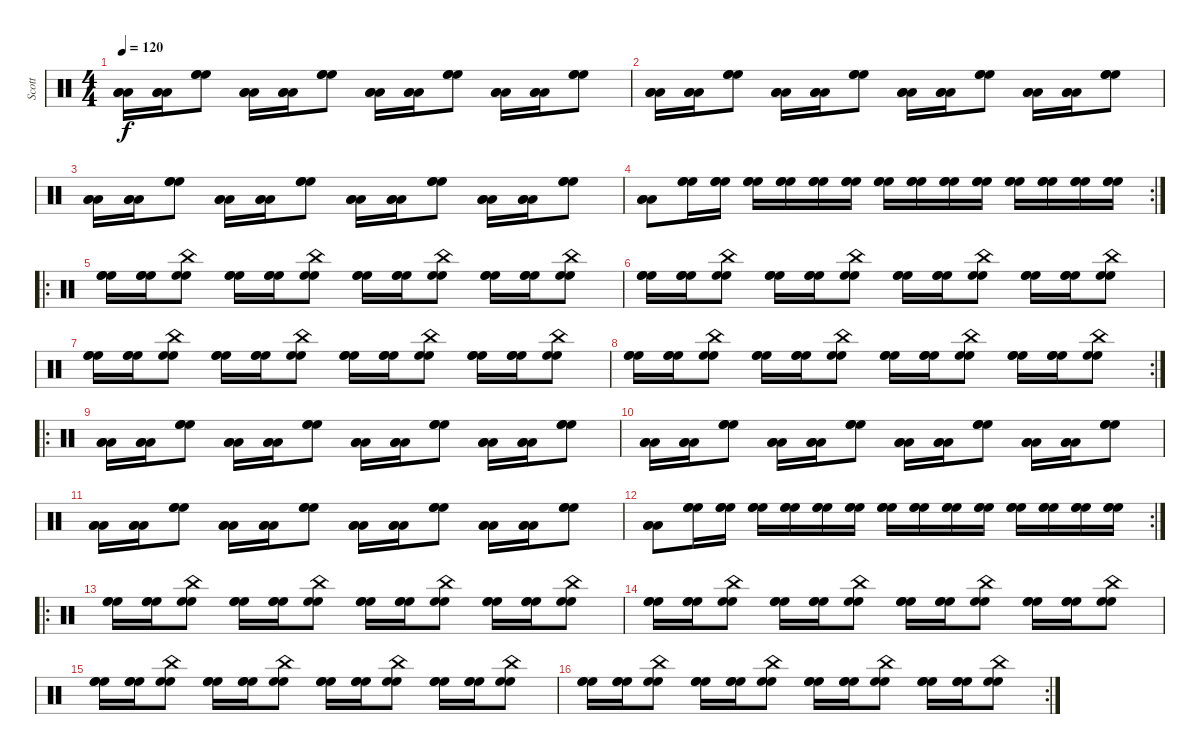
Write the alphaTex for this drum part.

\track ("Scott" "Scott") {instrument percussion}
\staff {score}
\articulation defaults
\ts (4 4)
\tempo 120
\clef neutral
\ks c
("Low Tom (hit)" "Low Tom (hit)" "Low Tom (hit)").16{dy f} ("Low Tom (hit)" "Low Tom (hit)" "Low Tom (hit)").16 ("High Floor Tom (hit)" "High Floor Tom (hit)" "High Floor Tom (hit)").8 ("Low Tom (hit)" "Low Tom (hit)" "Low Tom (hit)").16 ("Low Tom (hit)" "Low Tom (hit)" "Low Tom (hit)").16 ("High Floor Tom (hit)" "High Floor Tom (hit)" "High Floor Tom (hit)").8 ("Low Tom (hit)" "Low Tom (hit)" "Low Tom (hit)").16 ("Low Tom (hit)" "Low Tom (hit)" "Low Tom (hit)").16 ("High Floor Tom (hit)" "High Floor Tom (hit)" "High Floor Tom (hit)").8 ("Low Tom (hit)" "Low Tom (hit)" "Low Tom (hit)").16 ("Low Tom (hit)" "Low Tom (hit)" "Low Tom (hit)").16 ("High Floor Tom (hit)" "High Floor Tom (hit)" "High Floor Tom (hit)").8 |
("Low Tom (hit)" "Low Tom (hit)" "Low Tom (hit)").16 ("Low Tom (hit)" "Low Tom (hit)" "Low Tom (hit)").16 ("High Floor Tom (hit)" "High Floor Tom (hit)" "High Floor Tom (hit)").8 ("Low Tom (hit)" "Low Tom (hit)" "Low Tom (hit)").16 ("Low Tom (hit)" "Low Tom (hit)" "Low Tom (hit)").16 ("High Floor Tom (hit)" "High Floor Tom (hit)" "High Floor Tom (hit)").8 ("Low Tom (hit)" "Low Tom (hit)" "Low Tom (hit)").16 ("Low Tom (hit)" "Low Tom (hit)" "Low Tom (hit)").16 ("High Floor Tom (hit)" "High Floor Tom (hit)" "High Floor Tom (hit)").8 ("Low Tom (hit)" "Low Tom (hit)" "Low Tom (hit)").16 ("Low Tom (hit)" "Low Tom (hit)" "Low Tom (hit)").16 ("High Floor Tom (hit)" "High Floor Tom (hit)" "High Floor Tom (hit)").8 |
("Low Tom (hit)" "Low Tom (hit)" "Low Tom (hit)").16 ("Low Tom (hit)" "Low Tom (hit)" "Low Tom (hit)").16 ("High Floor Tom (hit)" "High Floor Tom (hit)" "High Floor Tom (hit)").8 ("Low Tom (hit)" "Low Tom (hit)" "Low Tom (hit)").16 ("Low Tom (hit)" "Low Tom (hit)" "Low Tom (hit)").16 ("High Floor Tom (hit)" "High Floor Tom (hit)" "High Floor Tom (hit)").8 ("Low Tom (hit)" "Low Tom (hit)" "Low Tom (hit)").16 ("Low Tom (hit)" "Low Tom (hit)" "Low Tom (hit)").16 ("High Floor Tom (hit)" "High Floor Tom (hit)" "High Floor Tom (hit)").8 ("Low Tom (hit)" "Low Tom (hit)" "Low Tom (hit)").16 ("Low Tom (hit)" "Low Tom (hit)" "Low Tom (hit)").16 ("High Floor Tom (hit)" "High Floor Tom (hit)" "High Floor Tom (hit)").8 |
\rc 2
("Low Tom (hit)" "Low Tom (hit)" "Low Tom (hit)").8{volume 16} ("High Floor Tom (hit)" "High Floor Tom (hit)" "High Floor Tom (hit)").16 ("High Floor Tom (hit)" "High Floor Tom (hit)" "High Floor Tom (hit)").16 ("High Floor Tom (hit)" "High Floor Tom (hit)" "High Floor Tom (hit)").16 ("High Floor Tom (hit)" "High Floor Tom (hit)" "High Floor Tom (hit)").16 ("High Floor Tom (hit)" "High Floor Tom (hit)" "High Floor Tom (hit)").16 ("High Floor Tom (hit)" "High Floor Tom (hit)" "High Floor Tom (hit)").16 ("High Floor Tom (hit)" "High Floor Tom (hit)" "High Floor Tom (hit)").16 ("High Floor Tom (hit)" "High Floor Tom (hit)" "High Floor Tom (hit)").16 ("High Floor Tom (hit)" "High Floor Tom (hit)" "High Floor Tom (hit)").16 ("High Floor Tom (hit)" "High Floor Tom (hit)" "High Floor Tom (hit)").16 ("High Floor Tom (hit)" "High Floor Tom (hit)" "High Floor Tom (hit)").16 ("High Floor Tom (hit)" "High Floor Tom (hit)" "High Floor Tom (hit)").16 ("High Floor Tom (hit)" "High Floor Tom (hit)" "High Floor Tom (hit)").16 ("High Floor Tom (hit)" "High Floor Tom (hit)" "High Floor Tom (hit)").16 |
\ro
("High Floor Tom (hit)" "High Floor Tom (hit)" "High Floor Tom (hit)").16 ("High Floor Tom (hit)" "High Floor Tom (hit)" "High Floor Tom (hit)").16 ("China (hit)" "High Floor Tom (hit)" "High Floor Tom (hit)").8 ("High Floor Tom (hit)" "High Floor Tom (hit)" "High Floor Tom (hit)").16 ("High Floor Tom (hit)" "High Floor Tom (hit)" "High Floor Tom (hit)").16 ("China (hit)" "High Floor Tom (hit)" "High Floor Tom (hit)").8 ("High Floor Tom (hit)" "High Floor Tom (hit)" "High Floor Tom (hit)").16 ("High Floor Tom (hit)" "High Floor Tom (hit)" "High Floor Tom (hit)").16 ("China (hit)" "High Floor Tom (hit)" "High Floor Tom (hit)").8 ("High Floor Tom (hit)" "High Floor Tom (hit)" "High Floor Tom (hit)").16 ("High Floor Tom (hit)" "High Floor Tom (hit)" "High Floor Tom (hit)").16 ("China (hit)" "High Floor Tom (hit)" "High Floor Tom (hit)").8 |
("High Floor Tom (hit)" "High Floor Tom (hit)" "High Floor Tom (hit)").16 ("High Floor Tom (hit)" "High Floor Tom (hit)" "High Floor Tom (hit)").16 ("China (hit)" "High Floor Tom (hit)" "High Floor Tom (hit)").8 ("High Floor Tom (hit)" "High Floor Tom (hit)" "High Floor Tom (hit)").16 ("High Floor Tom (hit)" "High Floor Tom (hit)" "High Floor Tom (hit)").16 ("China (hit)" "High Floor Tom (hit)" "High Floor Tom (hit)").8 ("High Floor Tom (hit)" "High Floor Tom (hit)" "High Floor Tom (hit)").16 ("High Floor Tom (hit)" "High Floor Tom (hit)" "High Floor Tom (hit)").16 ("China (hit)" "High Floor Tom (hit)" "High Floor Tom (hit)").8 ("High Floor Tom (hit)" "High Floor Tom (hit)" "High Floor Tom (hit)").16 ("High Floor Tom (hit)" "High Floor Tom (hit)" "High Floor Tom (hit)").16 ("China (hit)" "High Floor Tom (hit)" "High Floor Tom (hit)").8 |
("High Floor Tom (hit)" "High Floor Tom (hit)" "High Floor Tom (hit)").16 ("High Floor Tom (hit)" "High Floor Tom (hit)" "High Floor Tom (hit)").16 ("China (hit)" "High Floor Tom (hit)" "High Floor Tom (hit)").8 ("High Floor Tom (hit)" "High Floor Tom (hit)" "High Floor Tom (hit)").16 ("High Floor Tom (hit)" "High Floor Tom (hit)" "High Floor Tom (hit)").16 ("China (hit)" "High Floor Tom (hit)" "High Floor Tom (hit)").8 ("High Floor Tom (hit)" "High Floor Tom (hit)" "High Floor Tom (hit)").16 ("High Floor Tom (hit)" "High Floor Tom (hit)" "High Floor Tom (hit)").16 ("China (hit)" "High Floor Tom (hit)" "High Floor Tom (hit)").8 ("High Floor Tom (hit)" "High Floor Tom (hit)" "High Floor Tom (hit)").16 ("High Floor Tom (hit)" "High Floor Tom (hit)" "High Floor Tom (hit)").16 ("China (hit)" "High Floor Tom (hit)" "High Floor Tom (hit)").8 |
\rc 2
("High Floor Tom (hit)" "High Floor Tom (hit)" "High Floor Tom (hit)").16 ("High Floor Tom (hit)" "High Floor Tom (hit)" "High Floor Tom (hit)").16 ("China (hit)" "High Floor Tom (hit)" "High Floor Tom (hit)").8 ("High Floor Tom (hit)" "High Floor Tom (hit)" "High Floor Tom (hit)").16 ("High Floor Tom (hit)" "High Floor Tom (hit)" "High Floor Tom (hit)").16 ("China (hit)" "High Floor Tom (hit)" "High Floor Tom (hit)").8 ("High Floor Tom (hit)" "High Floor Tom (hit)" "High Floor Tom (hit)").16 ("High Floor Tom (hit)" "High Floor Tom (hit)" "High Floor Tom (hit)").16 ("China (hit)" "High Floor Tom (hit)" "High Floor Tom (hit)").8 ("High Floor Tom (hit)" "High Floor Tom (hit)" "High Floor Tom (hit)").16 ("High Floor Tom (hit)" "High Floor Tom (hit)" "High Floor Tom (hit)").16 ("China (hit)" "High Floor Tom (hit)" "High Floor Tom (hit)").8 |
\ro
("Low Tom (hit)" "Low Tom (hit)" "Low Tom (hit)").16 ("Low Tom (hit)" "Low Tom (hit)" "Low Tom (hit)").16 ("High Floor Tom (hit)" "High Floor Tom (hit)" "High Floor Tom (hit)").8 ("Low Tom (hit)" "Low Tom (hit)" "Low Tom (hit)").16 ("Low Tom (hit)" "Low Tom (hit)" "Low Tom (hit)").16 ("High Floor Tom (hit)" "High Floor Tom (hit)" "High Floor Tom (hit)").8 ("Low Tom (hit)" "Low Tom (hit)" "Low Tom (hit)").16 ("Low Tom (hit)" "Low Tom (hit)" "Low Tom (hit)").16 ("High Floor Tom (hit)" "High Floor Tom (hit)" "High Floor Tom (hit)").8 ("Low Tom (hit)" "Low Tom (hit)" "Low Tom (hit)").16 ("Low Tom (hit)" "Low Tom (hit)" "Low Tom (hit)").16 ("High Floor Tom (hit)" "High Floor Tom (hit)" "High Floor Tom (hit)").8 |
("Low Tom (hit)" "Low Tom (hit)" "Low Tom (hit)").16 ("Low Tom (hit)" "Low Tom (hit)" "Low Tom (hit)").16 ("High Floor Tom (hit)" "High Floor Tom (hit)" "High Floor Tom (hit)").8 ("Low Tom (hit)" "Low Tom (hit)" "Low Tom (hit)").16 ("Low Tom (hit)" "Low Tom (hit)" "Low Tom (hit)").16 ("High Floor Tom (hit)" "High Floor Tom (hit)" "High Floor Tom (hit)").8 ("Low Tom (hit)" "Low Tom (hit)" "Low Tom (hit)").16 ("Low Tom (hit)" "Low Tom (hit)" "Low Tom (hit)").16 ("High Floor Tom (hit)" "High Floor Tom (hit)" "High Floor Tom (hit)").8 ("Low Tom (hit)" "Low Tom (hit)" "Low Tom (hit)").16 ("Low Tom (hit)" "Low Tom (hit)" "Low Tom (hit)").16 ("High Floor Tom (hit)" "High Floor Tom (hit)" "High Floor Tom (hit)").8 |
("Low Tom (hit)" "Low Tom (hit)" "Low Tom (hit)").16 ("Low Tom (hit)" "Low Tom (hit)" "Low Tom (hit)").16 ("High Floor Tom (hit)" "High Floor Tom (hit)" "High Floor Tom (hit)").8 ("Low Tom (hit)" "Low Tom (hit)" "Low Tom (hit)").16 ("Low Tom (hit)" "Low Tom (hit)" "Low Tom (hit)").16 ("High Floor Tom (hit)" "High Floor Tom (hit)" "High Floor Tom (hit)").8 ("Low Tom (hit)" "Low Tom (hit)" "Low Tom (hit)").16 ("Low Tom (hit)" "Low Tom (hit)" "Low Tom (hit)").16 ("High Floor Tom (hit)" "High Floor Tom (hit)" "High Floor Tom (hit)").8 ("Low Tom (hit)" "Low Tom (hit)" "Low Tom (hit)").16 ("Low Tom (hit)" "Low Tom (hit)" "Low Tom (hit)").16 ("High Floor Tom (hit)" "High Floor Tom (hit)" "High Floor Tom (hit)").8 |
\rc 2
("Low Tom (hit)" "Low Tom (hit)" "Low Tom (hit)").8 ("High Floor Tom (hit)" "High Floor Tom (hit)" "High Floor Tom (hit)").16 ("High Floor Tom (hit)" "High Floor Tom (hit)" "High Floor Tom (hit)").16 ("High Floor Tom (hit)" "High Floor Tom (hit)" "High Floor Tom (hit)").16 ("High Floor Tom (hit)" "High Floor Tom (hit)" "High Floor Tom (hit)").16 ("High Floor Tom (hit)" "High Floor Tom (hit)" "High Floor Tom (hit)").16 ("High Floor Tom (hit)" "High Floor Tom (hit)" "High Floor Tom (hit)").16 ("High Floor Tom (hit)" "High Floor Tom (hit)" "High Floor Tom (hit)").16 ("High Floor Tom (hit)" "High Floor Tom (hit)" "High Floor Tom (hit)").16 ("High Floor Tom (hit)" "High Floor Tom (hit)" "High Floor Tom (hit)").16 ("High Floor Tom (hit)" "High Floor Tom (hit)" "High Floor Tom (hit)").16 ("High Floor Tom (hit)" "High Floor Tom (hit)" "High Floor Tom (hit)").16 ("High Floor Tom (hit)" "High Floor Tom (hit)" "High Floor Tom (hit)").16 ("High Floor Tom (hit)" "High Floor Tom (hit)" "High Floor Tom (hit)").16 ("High Floor Tom (hit)" "High Floor Tom (hit)" "High Floor Tom (hit)").16 |
\ro
("High Floor Tom (hit)" "High Floor Tom (hit)" "High Floor Tom (hit)").16 ("High Floor Tom (hit)" "High Floor Tom (hit)" "High Floor Tom (hit)").16 ("China (hit)" "High Floor Tom (hit)" "High Floor Tom (hit)").8 ("High Floor Tom (hit)" "High Floor Tom (hit)" "High Floor Tom (hit)").16 ("High Floor Tom (hit)" "High Floor Tom (hit)" "High Floor Tom (hit)").16 ("China (hit)" "High Floor Tom (hit)" "High Floor Tom (hit)").8 ("High Floor Tom (hit)" "High Floor Tom (hit)" "High Floor Tom (hit)").16 ("High Floor Tom (hit)" "High Floor Tom (hit)" "High Floor Tom (hit)").16 ("China (hit)" "High Floor Tom (hit)" "High Floor Tom (hit)").8 ("High Floor Tom (hit)" "High Floor Tom (hit)" "High Floor Tom (hit)").16 ("High Floor Tom (hit)" "High Floor Tom (hit)" "High Floor Tom (hit)").16 ("China (hit)" "High Floor Tom (hit)" "High Floor Tom (hit)").8 |
("High Floor Tom (hit)" "High Floor Tom (hit)" "High Floor Tom (hit)").16 ("High Floor Tom (hit)" "High Floor Tom (hit)" "High Floor Tom (hit)").16 ("China (hit)" "High Floor Tom (hit)" "High Floor Tom (hit)").8 ("High Floor Tom (hit)" "High Floor Tom (hit)" "High Floor Tom (hit)").16 ("High Floor Tom (hit)" "High Floor Tom (hit)" "High Floor Tom (hit)").16 ("China (hit)" "High Floor Tom (hit)" "High Floor Tom (hit)").8 ("High Floor Tom (hit)" "High Floor Tom (hit)" "High Floor Tom (hit)").16 ("High Floor Tom (hit)" "High Floor Tom (hit)" "High Floor Tom (hit)").16 ("China (hit)" "High Floor Tom (hit)" "High Floor Tom (hit)").8 ("High Floor Tom (hit)" "High Floor Tom (hit)" "High Floor Tom (hit)").16 ("High Floor Tom (hit)" "High Floor Tom (hit)" "High Floor Tom (hit)").16 ("China (hit)" "High Floor Tom (hit)" "High Floor Tom (hit)").8 |
("High Floor Tom (hit)" "High Floor Tom (hit)" "High Floor Tom (hit)").16 ("High Floor Tom (hit)" "High Floor Tom (hit)" "High Floor Tom (hit)").16 ("China (hit)" "High Floor Tom (hit)" "High Floor Tom (hit)").8 ("High Floor Tom (hit)" "High Floor Tom (hit)" "High Floor Tom (hit)").16 ("High Floor Tom (hit)" "High Floor Tom (hit)" "High Floor Tom (hit)").16 ("China (hit)" "High Floor Tom (hit)" "High Floor Tom (hit)").8 ("High Floor Tom (hit)" "High Floor Tom (hit)" "High Floor Tom (hit)").16 ("High Floor Tom (hit)" "High Floor Tom (hit)" "High Floor Tom (hit)").16 ("China (hit)" "High Floor Tom (hit)" "High Floor Tom (hit)").8 ("High Floor Tom (hit)" "High Floor Tom (hit)" "High Floor Tom (hit)").16 ("High Floor Tom (hit)" "High Floor Tom (hit)" "High Floor Tom (hit)").16 ("China (hit)" "High Floor Tom (hit)" "High Floor Tom (hit)").8 |
\rc 2
("High Floor Tom (hit)" "High Floor Tom (hit)" "High Floor Tom (hit)").16 ("High Floor Tom (hit)" "High Floor Tom (hit)" "High Floor Tom (hit)").16 ("China (hit)" "High Floor Tom (hit)" "High Floor Tom (hit)").8 ("High Floor Tom (hit)" "High Floor Tom (hit)" "High Floor Tom (hit)").16 ("High Floor Tom (hit)" "High Floor Tom (hit)" "High Floor Tom (hit)").16 ("China (hit)" "High Floor Tom (hit)" "High Floor Tom (hit)").8 ("High Floor Tom (hit)" "High Floor Tom (hit)" "High Floor Tom (hit)").16 ("High Floor Tom (hit)" "High Floor Tom (hit)" "High Floor Tom (hit)").16 ("China (hit)" "High Floor Tom (hit)" "High Floor Tom (hit)").8 ("High Floor Tom (hit)" "High Floor Tom (hit)" "High Floor Tom (hit)").16 ("High Floor Tom (hit)" "High Floor Tom (hit)" "High Floor Tom (hit)").16 ("China (hit)" "High Floor Tom (hit)" "High Floor Tom (hit)").8
